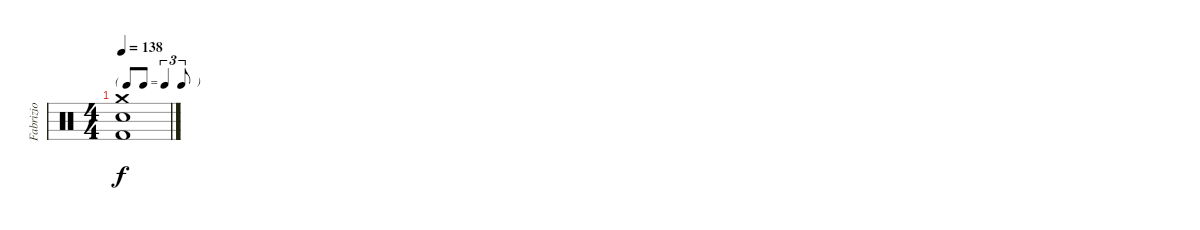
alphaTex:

\track ("Fabrizio" "Fabrizio") {instrument percussion}
\staff {score}
\articulation defaults
\ts (4 4)
\tf triplet8th
\tempo 138
\clef neutral
\ks c
("Crash medium (hit)" "Electric Snare (hit)" "Kick (hit) 2").1{dy f}
